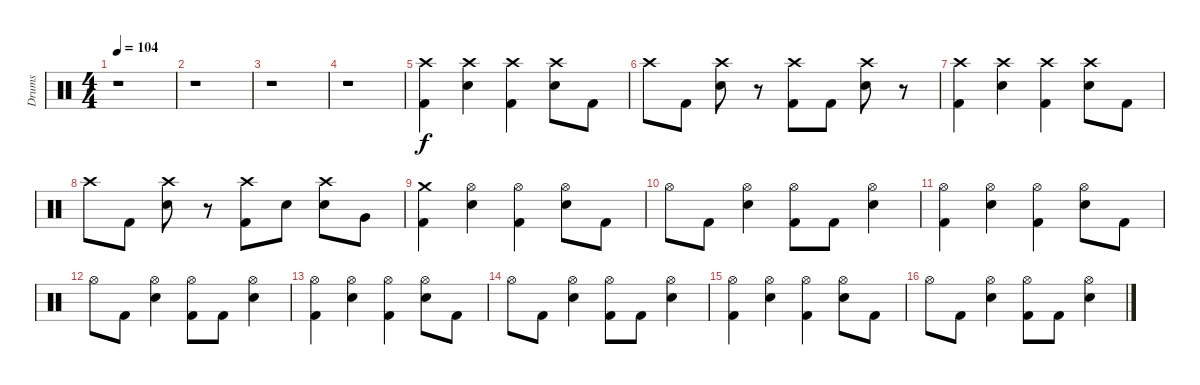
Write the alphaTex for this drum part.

\track ("Drums" "Drums") {instrument percussion}
\staff {score}
\articulation defaults
\ts (4 4)
\tempo 104
\clef neutral
\ks c
r.1{dy f} |
r.1 |
r.1 |
r.1 |
("Crash high (hit)" "Kick (hit) 2").4 ("Crash high (hit)" "Electric Snare (hit)").4 ("Crash high (hit)" "Kick (hit) 2").4 ("Crash high (hit)" "Electric Snare (hit)").8 "Kick (hit) 2".8 |
"Crash high (hit)".8 "Kick (hit) 2".8 ("Crash high (hit)" "Electric Snare (hit)").8 r.8 ("Crash high (hit)" "Kick (hit) 2").8 "Kick (hit) 2".8 ("Crash high (hit)" "Electric Snare (hit)").8 r.8 |
("Crash high (hit)" "Kick (hit) 2").4 ("Crash high (hit)" "Electric Snare (hit)").4 ("Crash high (hit)" "Kick (hit) 2").4 ("Crash high (hit)" "Electric Snare (hit)").8 "Kick (hit) 2".8 |
"Crash high (hit)".8 "Kick (hit) 2".8 ("Crash high (hit)" "Electric Snare (hit)").8 r.8 ("Crash high (hit)" "Kick (hit) 2").8 "Electric Snare (hit)".8 ("Crash high (hit)" "Electric Snare (hit)").8 "Very Low Tom (hit)".8 |
("Crash medium (hit)" "Kick (hit) 2").4 ("Hi-Hat (open)" "Electric Snare (hit)").4 ("Hi-Hat (open)" "Kick (hit) 2").4 ("Hi-Hat (open)" "Electric Snare (hit)").8 "Kick (hit) 2".8 |
"Hi-Hat (open)".8 "Kick (hit) 2".8 ("Hi-Hat (open)" "Electric Snare (hit)").4 ("Hi-Hat (open)" "Kick (hit) 2").8 "Kick (hit) 2".8 ("Hi-Hat (open)" "Electric Snare (hit)").4 |
("Hi-Hat (open)" "Kick (hit) 2").4 ("Hi-Hat (open)" "Electric Snare (hit)").4 ("Hi-Hat (open)" "Kick (hit) 2").4 ("Hi-Hat (open)" "Electric Snare (hit)").8 "Kick (hit) 2".8 |
"Hi-Hat (open)".8 "Kick (hit) 2".8 ("Hi-Hat (open)" "Electric Snare (hit)").4 ("Hi-Hat (open)" "Kick (hit) 2").8 "Kick (hit) 2".8 ("Hi-Hat (open)" "Electric Snare (hit)").4 |
("Hi-Hat (open)" "Kick (hit) 2").4 ("Hi-Hat (open)" "Electric Snare (hit)").4 ("Hi-Hat (open)" "Kick (hit) 2").4 ("Hi-Hat (open)" "Electric Snare (hit)").8 "Kick (hit) 2".8 |
"Hi-Hat (open)".8 "Kick (hit) 2".8 ("Hi-Hat (open)" "Electric Snare (hit)").4 ("Hi-Hat (open)" "Kick (hit) 2").8 "Kick (hit) 2".8 ("Hi-Hat (open)" "Electric Snare (hit)").4 |
("Hi-Hat (open)" "Kick (hit) 2").4 ("Hi-Hat (open)" "Electric Snare (hit)").4 ("Hi-Hat (open)" "Kick (hit) 2").4 ("Hi-Hat (open)" "Electric Snare (hit)").8 "Kick (hit) 2".8 |
"Hi-Hat (open)".8 "Kick (hit) 2".8 ("Hi-Hat (open)" "Electric Snare (hit)").4 ("Hi-Hat (open)" "Kick (hit) 2").8 "Kick (hit) 2".8 ("Hi-Hat (open)" "Electric Snare (hit)").4
